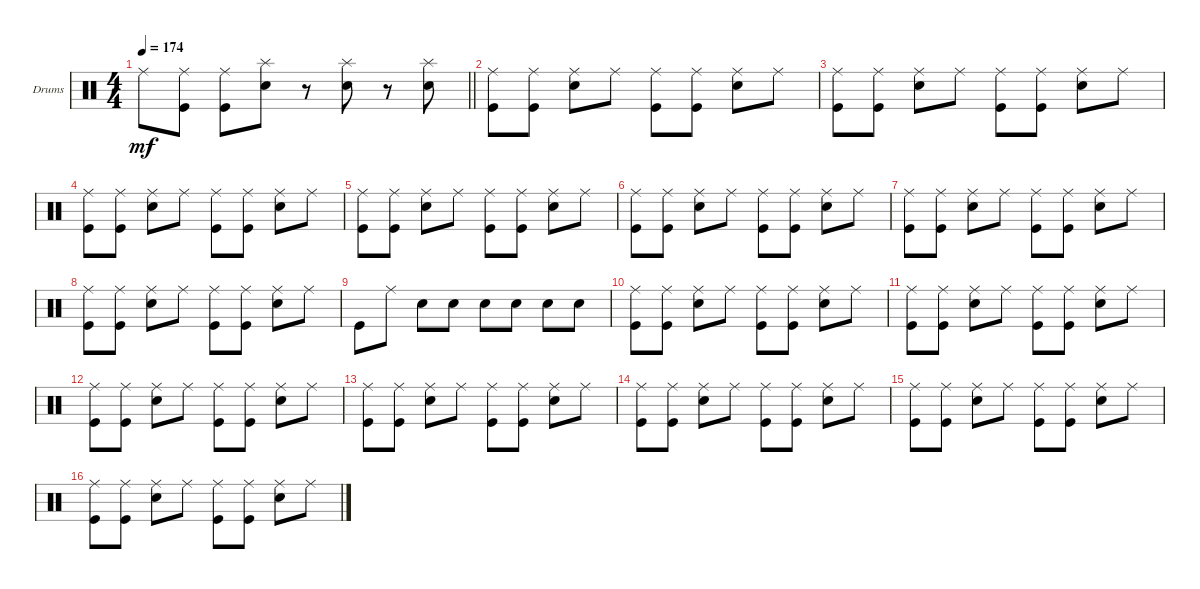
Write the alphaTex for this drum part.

\bracketExtendMode groupsimilarinstruments
\firstSystemTrackNameOrientation horizontal
\otherSystemsTrackNameOrientation horizontal
\track ("Drumkit" "Drums") {instrument percussion}
\staff {score}
\articulation defaults
\ts (4 4)
\tempo 174
\clef neutral
\scale
0.333333
\barLineRight lightlight
\ks c "Ride (middle)".8{dy mf}
("Kick (hit)" "Ride (middle)").8 ("Kick (hit)" "Ride (middle)").8 ("Snare (hit) 2" "Splash (hit)").8 r.8 ("Snare (hit) 2" "Splash (hit)").8 r.8 ("Splash (hit)" "Snare (hit) 2").8 |
\scale
0.333333 ("Ride (middle)" "Kick (hit)").8 ("Ride (middle)" "Kick (hit)").8 ("Ride (middle)" "Snare (hit) 2").8 "Ride (middle)".8 ("Ride (middle)" "Kick (hit)").8 ("Ride (middle)" "Kick (hit)").8 ("Ride (middle)" "Snare (hit) 2").8 "Ride (middle)".8 |
\scale
0.333333 ("Ride (middle)" "Kick (hit)").8 ("Ride (middle)" "Kick (hit)").8 ("Ride (middle)" "Snare (hit) 2").8 "Ride (middle)".8 ("Ride (middle)" "Kick (hit)").8 ("Ride (middle)" "Kick (hit)").8 ("Ride (middle)" "Snare (hit) 2").8 "Ride (middle)".8 |
\scale
0.333333 ("Ride (middle)" "Kick (hit)").8 ("Ride (middle)" "Kick (hit)").8 ("Ride (middle)" "Snare (hit) 2").8 "Ride (middle)".8 ("Ride (middle)" "Kick (hit)").8 ("Ride (middle)" "Kick (hit)").8 ("Ride (middle)" "Snare (hit) 2").8 "Ride (middle)".8 |
\scale
0.333333 ("Ride (middle)" "Kick (hit)").8 ("Ride (middle)" "Kick (hit)").8 ("Ride (middle)" "Snare (hit) 2").8 "Ride (middle)".8 ("Ride (middle)" "Kick (hit)").8 ("Ride (middle)" "Kick (hit)").8 ("Ride (middle)" "Snare (hit) 2").8 "Ride (middle)".8 |
\scale
0.333333 ("Ride (middle)" "Kick (hit)").8 ("Ride (middle)" "Kick (hit)").8 ("Ride (middle)" "Snare (hit) 2").8 "Ride (middle)".8 ("Ride (middle)" "Kick (hit)").8 ("Ride (middle)" "Kick (hit)").8 ("Ride (middle)" "Snare (hit) 2").8 "Ride (middle)".8 |
\scale
0.333333 ("Ride (middle)" "Kick (hit)").8 ("Ride (middle)" "Kick (hit)").8 ("Ride (middle)" "Snare (hit) 2").8 "Ride (middle)".8 ("Ride (middle)" "Kick (hit)").8 ("Ride (middle)" "Kick (hit)").8 ("Ride (middle)" "Snare (hit) 2").8 "Ride (middle)".8 |
\scale
0.333333 ("Ride (middle)" "Kick (hit)").8 ("Ride (middle)" "Kick (hit)").8 ("Ride (middle)" "Snare (hit) 2").8 "Ride (middle)".8 ("Ride (middle)" "Kick (hit)").8 ("Ride (middle)" "Kick (hit)").8 ("Ride (middle)" "Snare (hit) 2").8 "Ride (middle)".8 |
\scale
0.333333 "Kick (hit)".8 "Ride (middle)".8 "Snare (hit) 2".8 "Snare (hit) 2".8 "Snare (hit) 2".8 "Snare (hit) 2".8 "Snare (hit) 2".8 "Snare (hit) 2".8 |
\scale
0.333333 ("Ride (middle)" "Kick (hit)").8 ("Ride (middle)" "Kick (hit)").8 ("Ride (middle)" "Snare (hit) 2").8 "Ride (middle)".8 ("Ride (middle)" "Kick (hit)").8 ("Ride (middle)" "Kick (hit)").8 ("Ride (middle)" "Snare (hit) 2").8 "Ride (middle)".8 |
\scale
0.333333 ("Ride (middle)" "Kick (hit)").8 ("Ride (middle)" "Kick (hit)").8 ("Ride (middle)" "Snare (hit) 2").8 "Ride (middle)".8 ("Ride (middle)" "Kick (hit)").8 ("Ride (middle)" "Kick (hit)").8 ("Ride (middle)" "Snare (hit) 2").8 "Ride (middle)".8 |
\scale
0.333333 ("Ride (middle)" "Kick (hit)").8 ("Ride (middle)" "Kick (hit)").8 ("Ride (middle)" "Snare (hit) 2").8 "Ride (middle)".8 ("Ride (middle)" "Kick (hit)").8 ("Ride (middle)" "Kick (hit)").8 ("Ride (middle)" "Snare (hit) 2").8 "Ride (middle)".8 |
\scale
0.333333 ("Ride (middle)" "Kick (hit)").8 ("Ride (middle)" "Kick (hit)").8 ("Ride (middle)" "Snare (hit) 2").8 "Ride (middle)".8 ("Ride (middle)" "Kick (hit)").8 ("Ride (middle)" "Kick (hit)").8 ("Ride (middle)" "Snare (hit) 2").8 "Ride (middle)".8 |
\scale
0.333333 ("Ride (middle)" "Kick (hit)").8 ("Ride (middle)" "Kick (hit)").8 ("Ride (middle)" "Snare (hit) 2").8 "Ride (middle)".8 ("Ride (middle)" "Kick (hit)").8 ("Ride (middle)" "Kick (hit)").8 ("Ride (middle)" "Snare (hit) 2").8 "Ride (middle)".8 |
\scale
0.333333 ("Ride (middle)" "Kick (hit)").8 ("Ride (middle)" "Kick (hit)").8 ("Ride (middle)" "Snare (hit) 2").8 "Ride (middle)".8 ("Ride (middle)" "Kick (hit)").8 ("Ride (middle)" "Kick (hit)").8 ("Ride (middle)" "Snare (hit) 2").8 "Ride (middle)".8 |
\scale
0.333333 ("Ride (middle)" "Kick (hit)").8 ("Ride (middle)" "Kick (hit)").8 ("Ride (middle)" "Snare (hit) 2").8 "Ride (middle)".8 ("Ride (middle)" "Kick (hit)").8 ("Ride (middle)" "Kick (hit)").8 ("Ride (middle)" "Snare (hit) 2").8 "Ride (middle)".8
